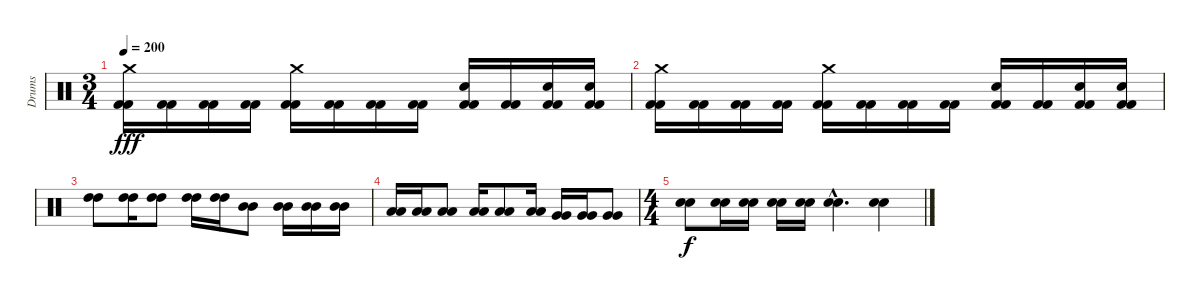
\track ("Drums" "Drums") {instrument percussion}
\staff {score}
\articulation defaults
\ts (3 4)
\tempo 200
\clef neutral
\ks c
("Crash medium (hit)" "Kick (hit) 2" "Kick (hit) 2").16{dy fff} ("Kick (hit) 2" "Kick (hit) 2").16 ("Kick (hit) 2" "Kick (hit) 2").16 ("Kick (hit) 2" "Kick (hit) 2").16 ("Crash medium (hit)" "Kick (hit) 2" "Kick (hit) 2").16 ("Kick (hit) 2" "Kick (hit) 2").16 ("Kick (hit) 2" "Kick (hit) 2").16 ("Kick (hit) 2" "Kick (hit) 2").16 ("Electric Snare (hit)" "Kick (hit) 2" "Kick (hit) 2").16 ("Kick (hit) 2" "Kick (hit) 2").16 ("Electric Snare (hit)" "Kick (hit) 2" "Kick (hit) 2").16 ("Electric Snare (hit)" "Kick (hit) 2" "Kick (hit) 2").16 |
("Crash medium (hit)" "Kick (hit) 2" "Kick (hit) 2").16 ("Kick (hit) 2" "Kick (hit) 2").16 ("Kick (hit) 2" "Kick (hit) 2").16 ("Kick (hit) 2" "Kick (hit) 2").16 ("Crash medium (hit)" "Kick (hit) 2" "Kick (hit) 2").16 ("Kick (hit) 2" "Kick (hit) 2").16 ("Kick (hit) 2" "Kick (hit) 2").16 ("Kick (hit) 2" "Kick (hit) 2").16 ("Electric Snare (hit)" "Kick (hit) 2" "Kick (hit) 2").16 ("Kick (hit) 2" "Kick (hit) 2").16 ("Electric Snare (hit)" "Kick (hit) 2" "Kick (hit) 2").16 ("Electric Snare (hit)" "Kick (hit) 2" "Kick (hit) 2").16 |
("High Tom (hit)" "High Tom (hit)").8 ("High Tom (hit)" "High Tom (hit)").16 ("High Tom (hit)" "High Tom (hit)").8 ("High Tom (hit)" "High Tom (hit)").16 ("High Tom (hit)" "High Tom (hit)").16 ("Mid Tom (hit)" "Mid Tom (hit)").8 ("Mid Tom (hit)" "Mid Tom (hit)").16 ("Mid Tom (hit)" "Mid Tom (hit)").16 ("Mid Tom (hit)" "Mid Tom (hit)").16 |
("Low Tom (hit)" "Low Tom (hit)").16 ("Low Tom (hit)" "Low Tom (hit)").16 ("Low Tom (hit)" "Low Tom (hit)").8 ("Low Tom (hit)" "Low Tom (hit)").16 ("Low Tom (hit)" "Low Tom (hit)").8 ("Low Tom (hit)" "Low Tom (hit)").16 ("Very Low Tom (hit)" "Very Low Tom (hit)").16 ("Very Low Tom (hit)" "Very Low Tom (hit)").16 ("Very Low Tom (hit)" "Very Low Tom (hit)").8 |
\ts (4 4)
("Electric Snare (hit)" "Electric Snare (hit)").8{dy f} ("Electric Snare (hit)" "Electric Snare (hit)").16 ("Electric Snare (hit)" "Electric Snare (hit)").16 ("Electric Snare (hit)" "Electric Snare (hit)").16 ("Electric Snare (hit)" "Electric Snare (hit)").16 ("Electric Snare (hit)"{hac} "Electric Snare (hit)"{hac}).4{d} ("Electric Snare (hit)" "Electric Snare (hit)").4
